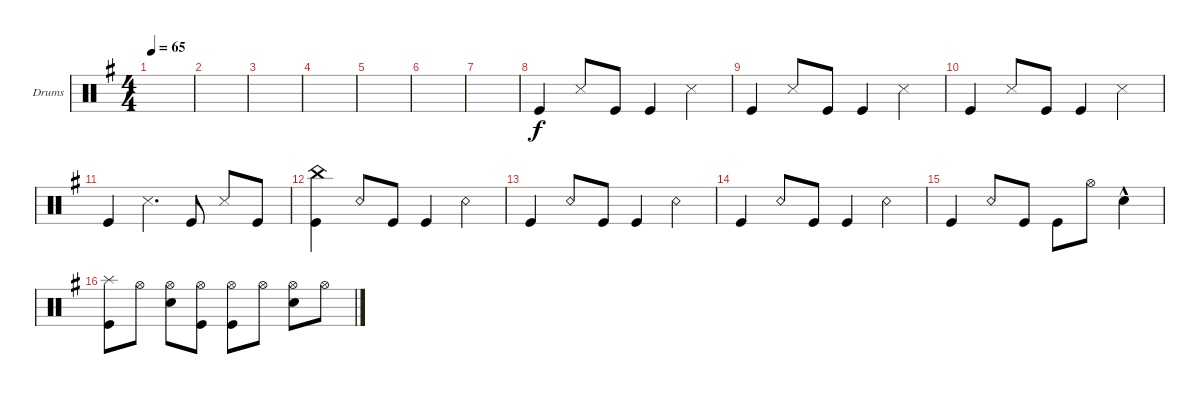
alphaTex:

\defaultSystemsLayout 4
\bracketExtendMode groupsimilarinstruments
\firstSystemTrackNameOrientation horizontal
\otherSystemsTrackNameOrientation horizontal
\track ("Drumkit" "Drums") {instrument percussion}
\staff {score}
\articulation defaults
\ts (4 4)
\tempo 65
\clef neutral
\scale
0.333333
\ks g
|
\scale
0.333333 |
\scale
0.333333 |
\scale
0.333333 |
\scale
0.333333 |
|
|
"Kick (hit)".4 "Snare (side stick) 3".8 "Kick (hit)".8 "Kick (hit)".4 "Snare (side stick) 3".4 |
"Kick (hit)".4 "Snare (side stick) 3".8 "Kick (hit)".8 "Kick (hit)".4 "Snare (side stick) 3".4 |
"Kick (hit)".4 "Snare (side stick) 3".8 "Kick (hit)".8 "Kick (hit)".4 "Snare (side stick) 3".4 |
"Kick (hit)".4 "Snare (side stick) 3".4{d} "Kick (hit)".8 "Snare (side stick) 3".8 "Kick (hit)".8 |
("Kick (hit)" "China (hit)").4 "Snare (rim shot)".8 "Kick (hit)".8 "Kick (hit)".4 "Snare (rim shot)".4 |
"Kick (hit)".4 "Snare (rim shot)".8 "Kick (hit)".8 "Kick (hit)".4 "Snare (rim shot)".4 |
"Kick (hit)".4 "Snare (rim shot)".8 "Kick (hit)".8 "Kick (hit)".4 "Snare (rim shot)".4 |
"Kick (hit)".4 "Snare (rim shot)".8 "Kick (hit)".8 "Kick (hit)".8 "Hi-Hat (open)".8 "Snare (hit) 2"{hac}.4 |
("Kick (hit)" "Splash (hit)").8 "Hi-Hat (open)".8 ("Hi-Hat (open)" "Snare (hit) 2").8 ("Hi-Hat (open)" "Kick (hit)").8 ("Hi-Hat (open)" "Kick (hit)").8 "Hi-Hat (open)".8 ("Hi-Hat (open)" "Snare (hit) 2").8 "Hi-Hat (open)".8
